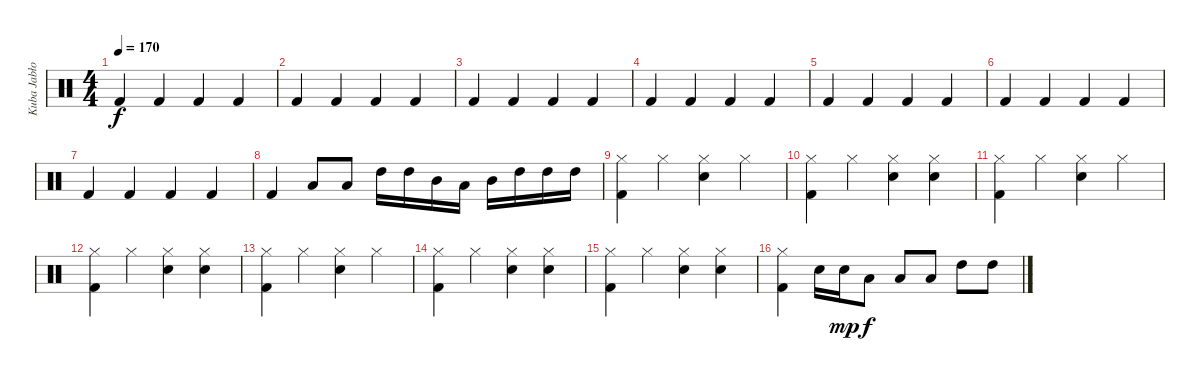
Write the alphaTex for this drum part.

\track ("Kuba Jabłoński" "Kuba Jabło") {instrument percussion}
\staff {score}
\articulation defaults
\ts (4 4)
\tempo 170
\clef neutral
\ks c "Kick (hit) 2".4{dy f} "Kick (hit) 2".4 "Kick (hit) 2".4 "Kick (hit) 2".4
|
"Kick (hit) 2".4 "Kick (hit) 2".4 "Kick (hit) 2".4 "Kick (hit) 2".4 |
"Kick (hit) 2".4 "Kick (hit) 2".4 "Kick (hit) 2".4 "Kick (hit) 2".4 |
"Kick (hit) 2".4 "Kick (hit) 2".4 "Kick (hit) 2".4 "Kick (hit) 2".4 |
"Kick (hit) 2".4 "Kick (hit) 2".4 "Kick (hit) 2".4 "Kick (hit) 2".4 |
"Kick (hit) 2".4 "Kick (hit) 2".4 "Kick (hit) 2".4 "Kick (hit) 2".4 |
"Kick (hit) 2".4 "Kick (hit) 2".4 "Kick (hit) 2".4 "Kick (hit) 2".4 |
"Kick (hit) 2".4 "Low Tom (hit)".8 "Low Tom (hit)".8 "High Tom (hit)".16 "High Tom (hit)".16 "Mid Tom (hit)".16 "Low Tom (hit)".16 "Mid Tom (hit)".16 "High Tom (hit)".16 "High Tom (hit)".16 "High Tom (hit)".16 |
("Kick (hit) 2" "Hi-Hat (closed)").4 "Hi-Hat (closed)".4 ("Snare (hit) 2" "Hi-Hat (closed)").4 "Hi-Hat (closed)".4 |
("Kick (hit) 2" "Hi-Hat (closed)").4 "Hi-Hat (closed)".4 ("Snare (hit) 2" "Hi-Hat (closed)").4 ("Snare (hit) 2" "Hi-Hat (closed)").4 |
("Kick (hit) 2" "Hi-Hat (closed)").4 "Hi-Hat (closed)".4 ("Snare (hit) 2" "Hi-Hat (closed)").4 "Hi-Hat (closed)".4 |
("Kick (hit) 2" "Hi-Hat (closed)").4 "Hi-Hat (closed)".4 ("Snare (hit) 2" "Hi-Hat (closed)").4 ("Snare (hit) 2" "Hi-Hat (closed)").4 |
("Kick (hit) 2" "Hi-Hat (closed)").4 "Hi-Hat (closed)".4 ("Snare (hit) 2" "Hi-Hat (closed)").4 "Hi-Hat (closed)".4 |
("Kick (hit) 2" "Hi-Hat (closed)").4 "Hi-Hat (closed)".4 ("Snare (hit) 2" "Hi-Hat (closed)").4 ("Snare (hit) 2" "Hi-Hat (closed)").4 |
("Kick (hit) 2" "Hi-Hat (closed)").4 "Hi-Hat (closed)".4 ("Snare (hit) 2" "Hi-Hat (closed)").4 ("Snare (hit) 2" "Hi-Hat (closed)").4 |
("Kick (hit) 2" "Hi-Hat (closed)").4 "Snare (hit) 2".16 "Snare (hit) 2".16{dy mp} "Low Tom (hit)".8{dy f} "Low Tom (hit)".8 "Low Tom (hit)".8 "High Tom (hit)".8 "High Tom (hit)".8
